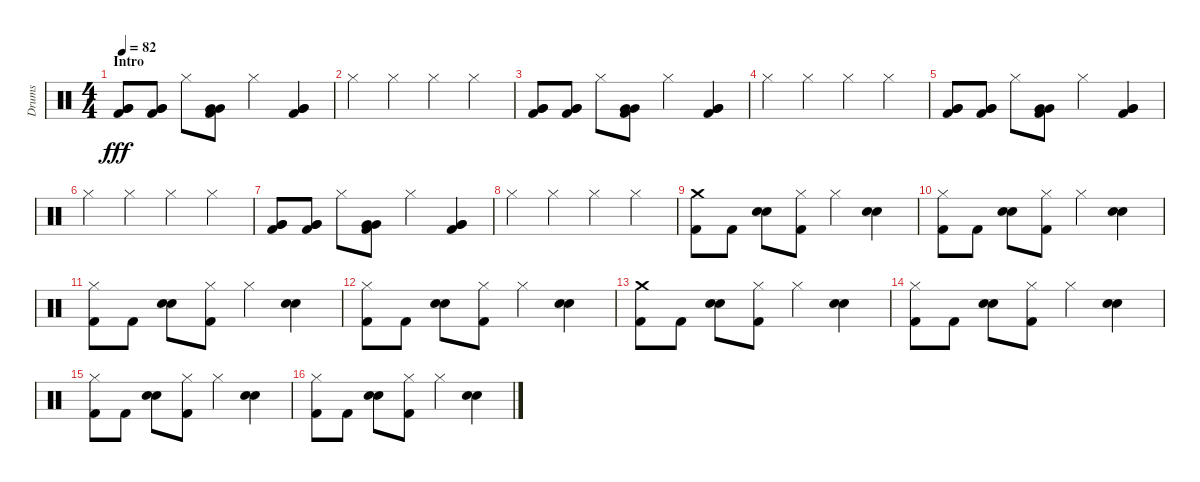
\track ("Drums" "Drums") {instrument percussion}
\staff {score}
\articulation defaults
\ts (4 4)
\section ("" "Intro")
\tempo 82
\clef neutral
\ks c
("Very Low Tom (hit)" "Very Low Tom (hit)" "Kick (hit) 2").8{dy fff} ("Very Low Tom (hit)" "Very Low Tom (hit)" "Kick (hit) 2").8 "Hi-Hat (closed)".8 ("Very Low Tom (hit)" "Very Low Tom (hit)" "Kick (hit) 2").8 "Hi-Hat (closed)".4 ("Very Low Tom (hit)" "Very Low Tom (hit)" "Kick (hit) 2").4 |
"Hi-Hat (closed)".4 "Hi-Hat (closed)".4 "Hi-Hat (closed)".4 "Hi-Hat (closed)".4 |
("Very Low Tom (hit)" "Very Low Tom (hit)" "Kick (hit) 2").8 ("Very Low Tom (hit)" "Very Low Tom (hit)" "Kick (hit) 2").8 "Hi-Hat (closed)".8 ("Very Low Tom (hit)" "Very Low Tom (hit)" "Kick (hit) 2").8 "Hi-Hat (closed)".4 ("Very Low Tom (hit)" "Very Low Tom (hit)" "Kick (hit) 2").4 |
"Hi-Hat (closed)".4 "Hi-Hat (closed)".4 "Hi-Hat (closed)".4 "Hi-Hat (closed)".4 |
("Very Low Tom (hit)" "Very Low Tom (hit)" "Kick (hit) 2").8 ("Very Low Tom (hit)" "Very Low Tom (hit)" "Kick (hit) 2").8 "Hi-Hat (closed)".8 ("Very Low Tom (hit)" "Very Low Tom (hit)" "Kick (hit) 2").8 "Hi-Hat (closed)".4 ("Very Low Tom (hit)" "Very Low Tom (hit)" "Kick (hit) 2").4 |
"Hi-Hat (closed)".4 "Hi-Hat (closed)".4 "Hi-Hat (closed)".4 "Hi-Hat (closed)".4 |
("Very Low Tom (hit)" "Very Low Tom (hit)" "Kick (hit) 2").8 ("Very Low Tom (hit)" "Very Low Tom (hit)" "Kick (hit) 2").8 "Hi-Hat (closed)".8 ("Very Low Tom (hit)" "Very Low Tom (hit)" "Kick (hit) 2").8 "Hi-Hat (closed)".4 ("Very Low Tom (hit)" "Very Low Tom (hit)" "Kick (hit) 2").4 |
"Hi-Hat (closed)".4 "Hi-Hat (closed)".4 "Hi-Hat (closed)".4 "Hi-Hat (closed)".4 |
("Crash medium (hit)" "Kick (hit) 2").8 "Kick (hit) 2".8 ("Electric Snare (hit)" "Electric Snare (hit)").8 ("Hi-Hat (closed)" "Kick (hit) 2").8 "Hi-Hat (closed)".4 ("Electric Snare (hit)" "Electric Snare (hit)").4 |
("Hi-Hat (closed)" "Kick (hit) 2").8 "Kick (hit) 2".8 ("Electric Snare (hit)" "Electric Snare (hit)").8 ("Hi-Hat (closed)" "Kick (hit) 2").8 "Hi-Hat (closed)".4 ("Electric Snare (hit)" "Electric Snare (hit)").4 |
("Hi-Hat (closed)" "Kick (hit) 2").8 "Kick (hit) 2".8 ("Electric Snare (hit)" "Electric Snare (hit)").8 ("Hi-Hat (closed)" "Kick (hit) 2").8 "Hi-Hat (closed)".4 ("Electric Snare (hit)" "Electric Snare (hit)").4 |
("Hi-Hat (closed)" "Kick (hit) 2").8 "Kick (hit) 2".8 ("Electric Snare (hit)" "Electric Snare (hit)").8 ("Hi-Hat (closed)" "Kick (hit) 2").8 "Hi-Hat (closed)".4 ("Electric Snare (hit)" "Electric Snare (hit)").4 |
("Crash medium (hit)" "Kick (hit) 2").8 "Kick (hit) 2".8 ("Electric Snare (hit)" "Electric Snare (hit)").8 ("Hi-Hat (closed)" "Kick (hit) 2").8 "Hi-Hat (closed)".4 ("Electric Snare (hit)" "Electric Snare (hit)").4 |
("Hi-Hat (closed)" "Kick (hit) 2").8 "Kick (hit) 2".8 ("Electric Snare (hit)" "Electric Snare (hit)").8 ("Hi-Hat (closed)" "Kick (hit) 2").8 "Hi-Hat (closed)".4 ("Electric Snare (hit)" "Electric Snare (hit)").4 |
("Hi-Hat (closed)" "Kick (hit) 2").8 "Kick (hit) 2".8 ("Electric Snare (hit)" "Electric Snare (hit)").8 ("Hi-Hat (closed)" "Kick (hit) 2").8 "Hi-Hat (closed)".4 ("Electric Snare (hit)" "Electric Snare (hit)").4 |
("Hi-Hat (closed)" "Kick (hit) 2").8 "Kick (hit) 2".8 ("Electric Snare (hit)" "Electric Snare (hit)").8 ("Hi-Hat (closed)" "Kick (hit) 2").8 "Hi-Hat (closed)".4 ("Electric Snare (hit)" "Electric Snare (hit)").4
